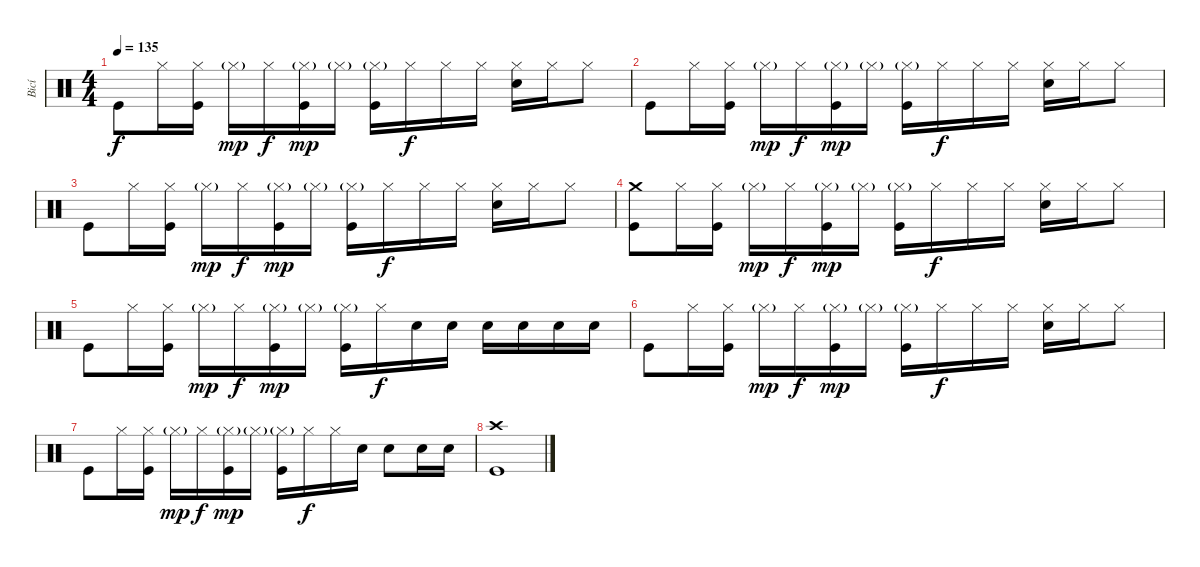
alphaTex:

\track ("Bicí" "Bicí") {instrument percussion}
\staff {score}
\articulation defaults
\ts (4 4)
\tempo 135
\clef neutral
\ks c "Kick (hit)".8{dy f} "Hi-Hat (closed)".16
("Hi-Hat (closed)" "Kick (hit)").16 "Hi-Hat (closed)"{g}.16{dy mp} "Hi-Hat (closed)".16{dy f} ("Hi-Hat (closed)"{g} "Kick (hit)").16{dy mp} "Hi-Hat (closed)"{g}.16 ("Hi-Hat (closed)"{g} "Kick (hit)").16 "Hi-Hat (closed)".16{dy f} "Hi-Hat (closed)".16 "Hi-Hat (closed)".16 ("Hi-Hat (closed)" "Electric Snare (hit)").16 "Hi-Hat (closed)".16 "Hi-Hat (closed)".8 |
"Kick (hit)".8 "Hi-Hat (closed)".16 ("Hi-Hat (closed)" "Kick (hit)").16 "Hi-Hat (closed)"{g}.16{dy mp} "Hi-Hat (closed)".16{dy f} ("Hi-Hat (closed)"{g} "Kick (hit)").16{dy mp} "Hi-Hat (closed)"{g}.16 ("Hi-Hat (closed)"{g} "Kick (hit)").16 "Hi-Hat (closed)".16{dy f} "Hi-Hat (closed)".16 "Hi-Hat (closed)".16 ("Hi-Hat (closed)" "Electric Snare (hit)").16 "Hi-Hat (closed)".16 "Hi-Hat (closed)".8 |
"Kick (hit)".8 "Hi-Hat (closed)".16 ("Hi-Hat (closed)" "Kick (hit)").16 "Hi-Hat (closed)"{g}.16{dy mp} "Hi-Hat (closed)".16{dy f} ("Hi-Hat (closed)"{g} "Kick (hit)").16{dy mp} "Hi-Hat (closed)"{g}.16 ("Hi-Hat (closed)"{g} "Kick (hit)").16 "Hi-Hat (closed)".16{dy f} "Hi-Hat (closed)".16 "Hi-Hat (closed)".16 ("Hi-Hat (closed)" "Electric Snare (hit)").16 "Hi-Hat (closed)".16 "Hi-Hat (closed)".8 |
("Crash medium (hit)" "Kick (hit)").8 "Hi-Hat (closed)".16 ("Hi-Hat (closed)" "Kick (hit)").16 "Hi-Hat (closed)"{g}.16{dy mp} "Hi-Hat (closed)".16{dy f} ("Hi-Hat (closed)"{g} "Kick (hit)").16{dy mp} "Hi-Hat (closed)"{g}.16 ("Hi-Hat (closed)"{g} "Kick (hit)").16 "Hi-Hat (closed)".16{dy f} "Hi-Hat (closed)".16 "Hi-Hat (closed)".16 ("Hi-Hat (closed)" "Electric Snare (hit)").16 "Hi-Hat (closed)".16 "Hi-Hat (closed)".8 |
"Kick (hit)".8 "Hi-Hat (closed)".16 ("Hi-Hat (closed)" "Kick (hit)").16 "Hi-Hat (closed)"{g}.16{dy mp} "Hi-Hat (closed)".16{dy f} ("Hi-Hat (closed)"{g} "Kick (hit)").16{dy mp} "Hi-Hat (closed)"{g}.16 ("Hi-Hat (closed)"{g} "Kick (hit)").16 "Hi-Hat (closed)".16{dy f} "Electric Snare (hit)".16 "Electric Snare (hit)".16 "Electric Snare (hit)".16 "Electric Snare (hit)".16 "Electric Snare (hit)".16 "Electric Snare (hit)".16 |
"Kick (hit)".8 "Hi-Hat (closed)".16 ("Hi-Hat (closed)" "Kick (hit)").16 "Hi-Hat (closed)"{g}.16{dy mp} "Hi-Hat (closed)".16{dy f} ("Hi-Hat (closed)"{g} "Kick (hit)").16{dy mp} "Hi-Hat (closed)"{g}.16 ("Hi-Hat (closed)"{g} "Kick (hit)").16 "Hi-Hat (closed)".16{dy f} "Hi-Hat (closed)".16 "Hi-Hat (closed)".16 ("Hi-Hat (closed)" "Electric Snare (hit)").16 "Hi-Hat (closed)".16 "Hi-Hat (closed)".8 |
"Kick (hit)".8 "Hi-Hat (closed)".16 ("Hi-Hat (closed)" "Kick (hit)").16 "Hi-Hat (closed)"{g}.16{dy mp} "Hi-Hat (closed)".16{dy f} ("Hi-Hat (closed)"{g} "Kick (hit)").16{dy mp} "Hi-Hat (closed)"{g}.16 ("Hi-Hat (closed)"{g} "Kick (hit)").16 "Hi-Hat (closed)".16{dy f} "Hi-Hat (closed)".16 "Electric Snare (hit)".16 "Electric Snare (hit)".8 "Electric Snare (hit)".16 "Electric Snare (hit)".16 |
("Crash high (hit)" "Kick (hit)").1
